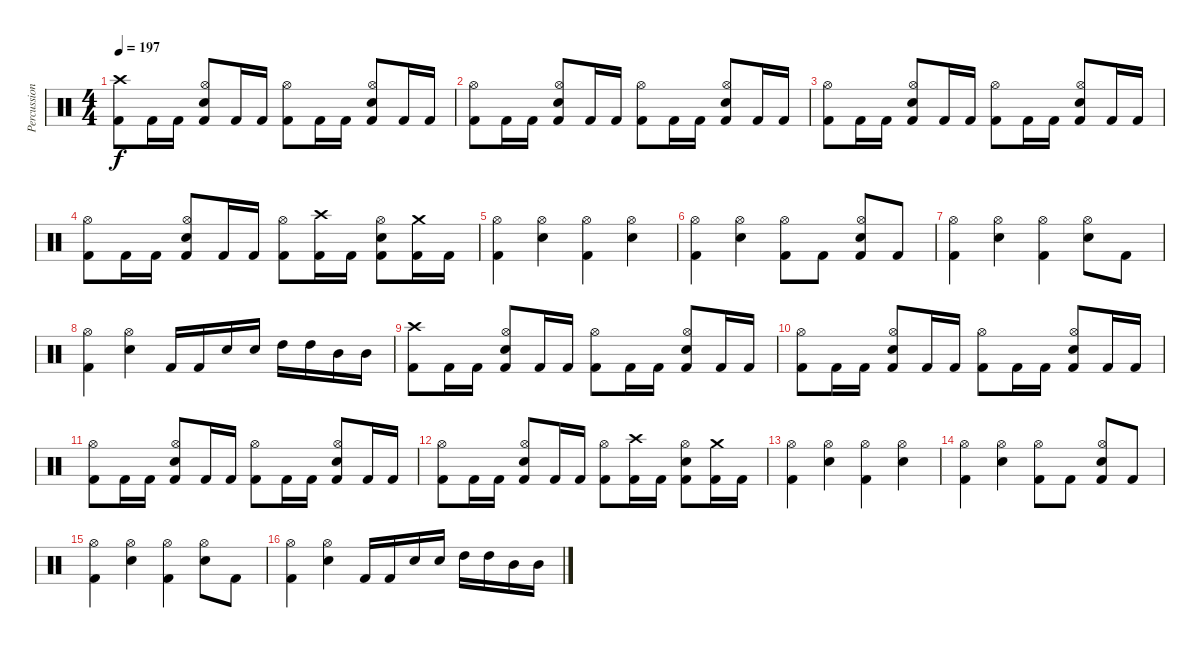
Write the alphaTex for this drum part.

\track ("Percussion" "Percussion") {instrument percussion}
\staff {score}
\articulation defaults
\ts (4 4)
\tempo 197
\clef neutral
\ks c
("Crash high (hit)" "Kick (hit) 2").8{dy f} "Kick (hit) 2".16 "Kick (hit) 2".16 ("Hi-Hat (open)" "Electric Snare (hit)" "Kick (hit) 2").8 "Kick (hit) 2".16 "Kick (hit) 2".16 ("Hi-Hat (open)" "Kick (hit) 2").8 "Kick (hit) 2".16 "Kick (hit) 2".16 ("Hi-Hat (open)" "Electric Snare (hit)" "Kick (hit) 2").8 "Kick (hit) 2".16 "Kick (hit) 2".16 |
("Hi-Hat (open)" "Kick (hit) 2").8 "Kick (hit) 2".16 "Kick (hit) 2".16 ("Hi-Hat (open)" "Electric Snare (hit)" "Kick (hit) 2").8 "Kick (hit) 2".16 "Kick (hit) 2".16 ("Hi-Hat (open)" "Kick (hit) 2").8 "Kick (hit) 2".16 "Kick (hit) 2".16 ("Hi-Hat (open)" "Electric Snare (hit)" "Kick (hit) 2").8 "Kick (hit) 2".16 "Kick (hit) 2".16 |
("Hi-Hat (open)" "Kick (hit) 2").8 "Kick (hit) 2".16 "Kick (hit) 2".16 ("Hi-Hat (open)" "Electric Snare (hit)" "Kick (hit) 2").8 "Kick (hit) 2".16 "Kick (hit) 2".16 ("Hi-Hat (open)" "Kick (hit) 2").8 "Kick (hit) 2".16 "Kick (hit) 2".16 ("Hi-Hat (open)" "Electric Snare (hit)" "Kick (hit) 2").8 "Kick (hit) 2".16 "Kick (hit) 2".16 |
("Hi-Hat (open)" "Kick (hit) 2").8 "Kick (hit) 2".16 "Kick (hit) 2".16 ("Hi-Hat (open)" "Electric Snare (hit)" "Kick (hit) 2").8 "Kick (hit) 2".16 "Kick (hit) 2".16 ("Hi-Hat (open)" "Kick (hit) 2").8 ("Crash high (hit)" "Kick (hit) 2").16 "Kick (hit) 2".16 ("Hi-Hat (open)" "Electric Snare (hit)" "Kick (hit) 2").8 ("Crash medium (hit)" "Kick (hit) 2").16 "Kick (hit) 2".16 |
("Hi-Hat (open)" "Kick (hit) 2").4 ("Hi-Hat (open)" "Electric Snare (hit)").4 ("Hi-Hat (open)" "Kick (hit) 2").4 ("Hi-Hat (open)" "Electric Snare (hit)").4 |
("Hi-Hat (open)" "Kick (hit) 2").4 ("Hi-Hat (open)" "Electric Snare (hit)").4 ("Hi-Hat (open)" "Kick (hit) 2").8 "Kick (hit) 2".8 ("Hi-Hat (open)" "Electric Snare (hit)" "Kick (hit) 2").8 "Kick (hit) 2".8 |
("Hi-Hat (open)" "Kick (hit) 2").4 ("Hi-Hat (open)" "Electric Snare (hit)").4 ("Hi-Hat (open)" "Kick (hit) 2").4 ("Hi-Hat (open)" "Electric Snare (hit)").8 "Kick (hit) 2".8 |
("Hi-Hat (open)" "Kick (hit) 2").4 ("Hi-Hat (open)" "Electric Snare (hit)").4 "Kick (hit) 2".16 "Kick (hit) 2".16 "Electric Snare (hit)".16 "Electric Snare (hit)".16 "High Tom (hit)".16 "High Tom (hit)".16 "Mid Tom (hit)".16 "Mid Tom (hit)".16 |
("Crash high (hit)" "Kick (hit) 2").8 "Kick (hit) 2".16 "Kick (hit) 2".16 ("Hi-Hat (open)" "Electric Snare (hit)" "Kick (hit) 2").8 "Kick (hit) 2".16 "Kick (hit) 2".16 ("Hi-Hat (open)" "Kick (hit) 2").8 "Kick (hit) 2".16 "Kick (hit) 2".16 ("Hi-Hat (open)" "Electric Snare (hit)" "Kick (hit) 2").8 "Kick (hit) 2".16 "Kick (hit) 2".16 |
("Hi-Hat (open)" "Kick (hit) 2").8 "Kick (hit) 2".16 "Kick (hit) 2".16 ("Hi-Hat (open)" "Electric Snare (hit)" "Kick (hit) 2").8 "Kick (hit) 2".16 "Kick (hit) 2".16 ("Hi-Hat (open)" "Kick (hit) 2").8 "Kick (hit) 2".16 "Kick (hit) 2".16 ("Hi-Hat (open)" "Electric Snare (hit)" "Kick (hit) 2").8 "Kick (hit) 2".16 "Kick (hit) 2".16 |
("Hi-Hat (open)" "Kick (hit) 2").8 "Kick (hit) 2".16 "Kick (hit) 2".16 ("Hi-Hat (open)" "Electric Snare (hit)" "Kick (hit) 2").8 "Kick (hit) 2".16 "Kick (hit) 2".16 ("Hi-Hat (open)" "Kick (hit) 2").8 "Kick (hit) 2".16 "Kick (hit) 2".16 ("Hi-Hat (open)" "Electric Snare (hit)" "Kick (hit) 2").8 "Kick (hit) 2".16 "Kick (hit) 2".16 |
("Hi-Hat (open)" "Kick (hit) 2").8 "Kick (hit) 2".16 "Kick (hit) 2".16 ("Hi-Hat (open)" "Electric Snare (hit)" "Kick (hit) 2").8 "Kick (hit) 2".16 "Kick (hit) 2".16 ("Hi-Hat (open)" "Kick (hit) 2").8 ("Crash high (hit)" "Kick (hit) 2").16 "Kick (hit) 2".16 ("Hi-Hat (open)" "Electric Snare (hit)" "Kick (hit) 2").8 ("Crash medium (hit)" "Kick (hit) 2").16 "Kick (hit) 2".16 |
("Hi-Hat (open)" "Kick (hit) 2").4 ("Hi-Hat (open)" "Electric Snare (hit)").4 ("Hi-Hat (open)" "Kick (hit) 2").4 ("Hi-Hat (open)" "Electric Snare (hit)").4 |
("Hi-Hat (open)" "Kick (hit) 2").4 ("Hi-Hat (open)" "Electric Snare (hit)").4 ("Hi-Hat (open)" "Kick (hit) 2").8 "Kick (hit) 2".8 ("Hi-Hat (open)" "Electric Snare (hit)" "Kick (hit) 2").8 "Kick (hit) 2".8 |
("Hi-Hat (open)" "Kick (hit) 2").4 ("Hi-Hat (open)" "Electric Snare (hit)").4 ("Hi-Hat (open)" "Kick (hit) 2").4 ("Hi-Hat (open)" "Electric Snare (hit)").8 "Kick (hit) 2".8 |
("Hi-Hat (open)" "Kick (hit) 2").4 ("Hi-Hat (open)" "Electric Snare (hit)").4 "Kick (hit) 2".16 "Kick (hit) 2".16 "Electric Snare (hit)".16 "Electric Snare (hit)".16 "High Tom (hit)".16 "High Tom (hit)".16 "Mid Tom (hit)".16 "Mid Tom (hit)".16
